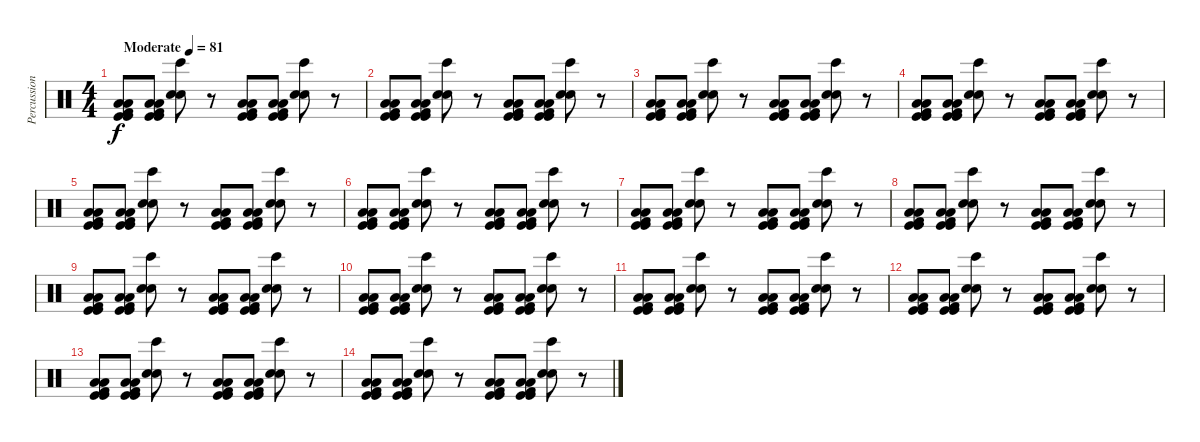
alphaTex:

\track ("Percussion" "Percussion") {instrument percussion}
\staff {score}
\articulation defaults
\ts (4 4)
\tempo (81 "Moderate")
\clef neutral
\ks c
("Kick (hit)" "Low Floor Tom (hit)" "Low Floor Tom (hit)" "Kick (hit)" "Kick (hit) 2").8{dy f} ("Kick (hit)" "Low Floor Tom (hit)" "Low Floor Tom (hit)" "Kick (hit)" "Kick (hit) 2").8 ("Bongo High (hit)" "Hand Clap (hit)" "Electric Snare (hit)").8 r.8 ("Kick (hit)" "Low Floor Tom (hit)" "Low Floor Tom (hit)" "Kick (hit)" "Kick (hit) 2").8 ("Kick (hit)" "Low Floor Tom (hit)" "Low Floor Tom (hit)" "Kick (hit)" "Kick (hit) 2").8 ("Bongo High (hit)" "Hand Clap (hit)" "Electric Snare (hit)").8 r.8 |
("Kick (hit)" "Low Floor Tom (hit)" "Low Floor Tom (hit)" "Kick (hit)" "Kick (hit) 2").8 ("Kick (hit)" "Low Floor Tom (hit)" "Low Floor Tom (hit)" "Kick (hit)" "Kick (hit) 2").8 ("Bongo High (hit)" "Hand Clap (hit)" "Electric Snare (hit)").8 r.8 ("Kick (hit)" "Low Floor Tom (hit)" "Low Floor Tom (hit)" "Kick (hit)" "Kick (hit) 2").8 ("Kick (hit)" "Low Floor Tom (hit)" "Low Floor Tom (hit)" "Kick (hit)" "Kick (hit) 2").8 ("Bongo High (hit)" "Hand Clap (hit)" "Electric Snare (hit)").8 r.8 |
("Kick (hit)" "Low Floor Tom (hit)" "Low Floor Tom (hit)" "Kick (hit)" "Kick (hit) 2").8 ("Kick (hit)" "Low Floor Tom (hit)" "Low Floor Tom (hit)" "Kick (hit)" "Kick (hit) 2").8 ("Bongo High (hit)" "Hand Clap (hit)" "Electric Snare (hit)").8 r.8 ("Kick (hit)" "Low Floor Tom (hit)" "Low Floor Tom (hit)" "Kick (hit)" "Kick (hit) 2").8 ("Kick (hit)" "Low Floor Tom (hit)" "Low Floor Tom (hit)" "Kick (hit)" "Kick (hit) 2").8 ("Bongo High (hit)" "Hand Clap (hit)" "Electric Snare (hit)").8 r.8 |
("Kick (hit)" "Low Floor Tom (hit)" "Low Floor Tom (hit)" "Kick (hit)" "Kick (hit) 2").8 ("Kick (hit)" "Low Floor Tom (hit)" "Low Floor Tom (hit)" "Kick (hit)" "Kick (hit) 2").8 ("Bongo High (hit)" "Hand Clap (hit)" "Electric Snare (hit)").8 r.8 ("Kick (hit)" "Low Floor Tom (hit)" "Low Floor Tom (hit)" "Kick (hit)" "Kick (hit) 2").8 ("Kick (hit)" "Low Floor Tom (hit)" "Low Floor Tom (hit)" "Kick (hit)" "Kick (hit) 2").8 ("Bongo High (hit)" "Hand Clap (hit)" "Electric Snare (hit)").8 r.8 |
("Kick (hit)" "Low Floor Tom (hit)" "Low Floor Tom (hit)" "Kick (hit)" "Kick (hit) 2").8 ("Kick (hit)" "Low Floor Tom (hit)" "Low Floor Tom (hit)" "Kick (hit)" "Kick (hit) 2").8 ("Bongo High (hit)" "Hand Clap (hit)" "Electric Snare (hit)").8 r.8 ("Kick (hit)" "Low Floor Tom (hit)" "Low Floor Tom (hit)" "Kick (hit)" "Kick (hit) 2").8 ("Kick (hit)" "Low Floor Tom (hit)" "Low Floor Tom (hit)" "Kick (hit)" "Kick (hit) 2").8 ("Bongo High (hit)" "Hand Clap (hit)" "Electric Snare (hit)").8 r.8 |
("Kick (hit)" "Low Floor Tom (hit)" "Low Floor Tom (hit)" "Kick (hit)" "Kick (hit) 2").8 ("Kick (hit)" "Low Floor Tom (hit)" "Low Floor Tom (hit)" "Kick (hit)" "Kick (hit) 2").8 ("Bongo High (hit)" "Hand Clap (hit)" "Electric Snare (hit)").8 r.8 ("Kick (hit)" "Low Floor Tom (hit)" "Low Floor Tom (hit)" "Kick (hit)" "Kick (hit) 2").8 ("Kick (hit)" "Low Floor Tom (hit)" "Low Floor Tom (hit)" "Kick (hit)" "Kick (hit) 2").8 ("Bongo High (hit)" "Hand Clap (hit)" "Electric Snare (hit)").8 r.8 |
("Kick (hit)" "Low Floor Tom (hit)" "Low Floor Tom (hit)" "Kick (hit)" "Kick (hit) 2").8 ("Kick (hit)" "Low Floor Tom (hit)" "Low Floor Tom (hit)" "Kick (hit)" "Kick (hit) 2").8 ("Bongo High (hit)" "Hand Clap (hit)" "Electric Snare (hit)").8 r.8 ("Kick (hit)" "Low Floor Tom (hit)" "Low Floor Tom (hit)" "Kick (hit)" "Kick (hit) 2").8 ("Kick (hit)" "Low Floor Tom (hit)" "Low Floor Tom (hit)" "Kick (hit)" "Kick (hit) 2").8 ("Bongo High (hit)" "Hand Clap (hit)" "Electric Snare (hit)").8 r.8 |
("Kick (hit)" "Low Floor Tom (hit)" "Low Floor Tom (hit)" "Kick (hit)" "Kick (hit) 2").8 ("Kick (hit)" "Low Floor Tom (hit)" "Low Floor Tom (hit)" "Kick (hit)" "Kick (hit) 2").8 ("Bongo High (hit)" "Hand Clap (hit)" "Electric Snare (hit)").8 r.8 ("Kick (hit)" "Low Floor Tom (hit)" "Low Floor Tom (hit)" "Kick (hit)" "Kick (hit) 2").8 ("Kick (hit)" "Low Floor Tom (hit)" "Low Floor Tom (hit)" "Kick (hit)" "Kick (hit) 2").8 ("Bongo High (hit)" "Hand Clap (hit)" "Electric Snare (hit)").8 r.8 |
("Kick (hit)" "Low Floor Tom (hit)" "Low Floor Tom (hit)" "Kick (hit)" "Kick (hit) 2").8 ("Kick (hit)" "Low Floor Tom (hit)" "Low Floor Tom (hit)" "Kick (hit)" "Kick (hit) 2").8 ("Bongo High (hit)" "Hand Clap (hit)" "Electric Snare (hit)").8 r.8 ("Kick (hit)" "Low Floor Tom (hit)" "Low Floor Tom (hit)" "Kick (hit)" "Kick (hit) 2").8 ("Kick (hit)" "Low Floor Tom (hit)" "Low Floor Tom (hit)" "Kick (hit)" "Kick (hit) 2").8 ("Bongo High (hit)" "Hand Clap (hit)" "Electric Snare (hit)").8 r.8 |
("Kick (hit)" "Low Floor Tom (hit)" "Low Floor Tom (hit)" "Kick (hit)" "Kick (hit) 2").8 ("Kick (hit)" "Low Floor Tom (hit)" "Low Floor Tom (hit)" "Kick (hit)" "Kick (hit) 2").8 ("Bongo High (hit)" "Hand Clap (hit)" "Electric Snare (hit)").8 r.8 ("Kick (hit)" "Low Floor Tom (hit)" "Low Floor Tom (hit)" "Kick (hit)" "Kick (hit) 2").8 ("Kick (hit)" "Low Floor Tom (hit)" "Low Floor Tom (hit)" "Kick (hit)" "Kick (hit) 2").8 ("Bongo High (hit)" "Hand Clap (hit)" "Electric Snare (hit)").8 r.8 |
("Kick (hit)" "Low Floor Tom (hit)" "Low Floor Tom (hit)" "Kick (hit)" "Kick (hit) 2").8 ("Kick (hit)" "Low Floor Tom (hit)" "Low Floor Tom (hit)" "Kick (hit)" "Kick (hit) 2").8 ("Bongo High (hit)" "Hand Clap (hit)" "Electric Snare (hit)").8 r.8 ("Kick (hit)" "Low Floor Tom (hit)" "Low Floor Tom (hit)" "Kick (hit)" "Kick (hit) 2").8 ("Kick (hit)" "Low Floor Tom (hit)" "Low Floor Tom (hit)" "Kick (hit)" "Kick (hit) 2").8 ("Bongo High (hit)" "Hand Clap (hit)" "Electric Snare (hit)").8 r.8 |
("Kick (hit)" "Low Floor Tom (hit)" "Low Floor Tom (hit)" "Kick (hit)" "Kick (hit) 2").8 ("Kick (hit)" "Low Floor Tom (hit)" "Low Floor Tom (hit)" "Kick (hit)" "Kick (hit) 2").8 ("Bongo High (hit)" "Hand Clap (hit)" "Electric Snare (hit)").8 r.8 ("Kick (hit)" "Low Floor Tom (hit)" "Low Floor Tom (hit)" "Kick (hit)" "Kick (hit) 2").8 ("Kick (hit)" "Low Floor Tom (hit)" "Low Floor Tom (hit)" "Kick (hit)" "Kick (hit) 2").8 ("Bongo High (hit)" "Hand Clap (hit)" "Electric Snare (hit)").8 r.8 |
("Kick (hit)" "Low Floor Tom (hit)" "Low Floor Tom (hit)" "Kick (hit)" "Kick (hit) 2").8 ("Kick (hit)" "Low Floor Tom (hit)" "Low Floor Tom (hit)" "Kick (hit)" "Kick (hit) 2").8 ("Bongo High (hit)" "Hand Clap (hit)" "Electric Snare (hit)").8 r.8 ("Kick (hit)" "Low Floor Tom (hit)" "Low Floor Tom (hit)" "Kick (hit)" "Kick (hit) 2").8 ("Kick (hit)" "Low Floor Tom (hit)" "Low Floor Tom (hit)" "Kick (hit)" "Kick (hit) 2").8 ("Bongo High (hit)" "Hand Clap (hit)" "Electric Snare (hit)").8 r.8 |
("Kick (hit)" "Low Floor Tom (hit)" "Low Floor Tom (hit)" "Kick (hit)" "Kick (hit) 2").8 ("Kick (hit)" "Low Floor Tom (hit)" "Low Floor Tom (hit)" "Kick (hit)" "Kick (hit) 2").8 ("Bongo High (hit)" "Hand Clap (hit)" "Electric Snare (hit)").8 r.8 ("Kick (hit)" "Low Floor Tom (hit)" "Low Floor Tom (hit)" "Kick (hit)" "Kick (hit) 2").8 ("Kick (hit)" "Low Floor Tom (hit)" "Low Floor Tom (hit)" "Kick (hit)" "Kick (hit) 2").8 ("Bongo High (hit)" "Hand Clap (hit)" "Electric Snare (hit)").8 r.8
